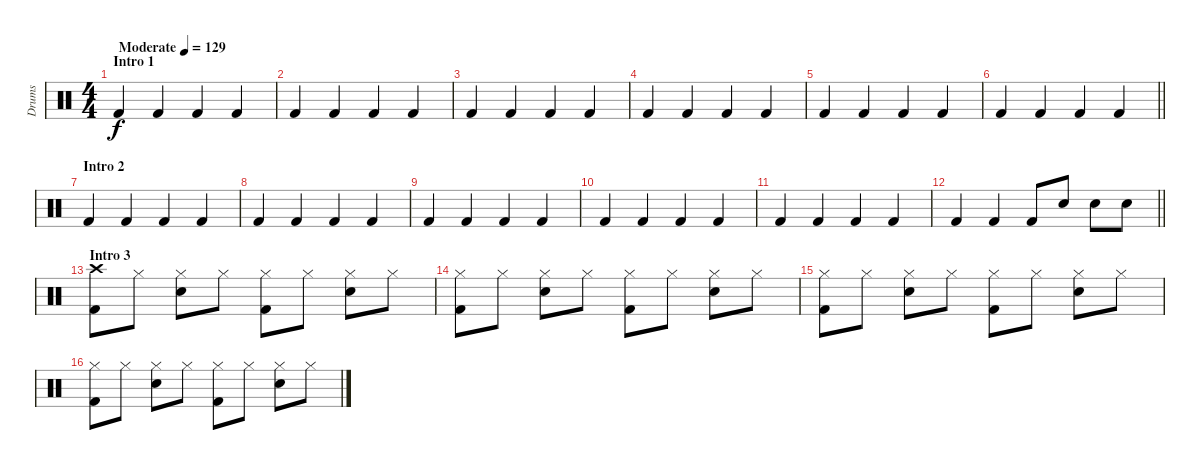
\track ("Drums" "Drums") {instrument percussion}
\staff {score}
\articulation defaults
\ts (4 4)
\section ("" "Intro 1")
\tempo (129 "Moderate")
\clef neutral
\ks c "Kick (hit) 2".4{dy f} "Kick (hit) 2".4 "Kick (hit) 2".4 "Kick (hit) 2".4
|
"Kick (hit) 2".4 "Kick (hit) 2".4 "Kick (hit) 2".4 "Kick (hit) 2".4 |
"Kick (hit) 2".4 "Kick (hit) 2".4 "Kick (hit) 2".4 "Kick (hit) 2".4 |
"Kick (hit) 2".4 "Kick (hit) 2".4 "Kick (hit) 2".4 "Kick (hit) 2".4 |
"Kick (hit) 2".4 "Kick (hit) 2".4 "Kick (hit) 2".4 "Kick (hit) 2".4 |
\barLineRight lightlight "Kick (hit) 2".4 "Kick (hit) 2".4 "Kick (hit) 2".4 "Kick (hit) 2".4
|
\section ("" "Intro 2")
"Kick (hit) 2".4 "Kick (hit) 2".4 "Kick (hit) 2".4 "Kick (hit) 2".4 |
"Kick (hit) 2".4 "Kick (hit) 2".4 "Kick (hit) 2".4 "Kick (hit) 2".4 |
"Kick (hit) 2".4 "Kick (hit) 2".4 "Kick (hit) 2".4 "Kick (hit) 2".4 |
"Kick (hit) 2".4 "Kick (hit) 2".4 "Kick (hit) 2".4 "Kick (hit) 2".4 |
"Kick (hit) 2".4 "Kick (hit) 2".4 "Kick (hit) 2".4 "Kick (hit) 2".4 |
\barLineRight lightlight "Kick (hit) 2".4 "Kick (hit) 2".4 "Kick (hit) 2".8 "Snare (hit) 2".8 "Snare (hit) 2".8 "Snare (hit) 2".8
|
\section ("" "Intro 3")
("Crash high (hit)" "Kick (hit) 2").8 "Hi-Hat (closed)".8 ("Hi-Hat (closed)" "Snare (hit) 2").8 "Hi-Hat (closed)".8 ("Hi-Hat (closed)" "Kick (hit) 2").8 "Hi-Hat (closed)".8 ("Hi-Hat (closed)" "Snare (hit) 2").8 "Hi-Hat (closed)".8 |
("Hi-Hat (closed)" "Kick (hit) 2").8 "Hi-Hat (closed)".8 ("Hi-Hat (closed)" "Snare (hit) 2").8 "Hi-Hat (closed)".8 ("Hi-Hat (closed)" "Kick (hit) 2").8 "Hi-Hat (closed)".8 ("Hi-Hat (closed)" "Snare (hit) 2").8 "Hi-Hat (closed)".8 |
("Hi-Hat (closed)" "Kick (hit) 2").8 "Hi-Hat (closed)".8 ("Hi-Hat (closed)" "Snare (hit) 2").8 "Hi-Hat (closed)".8 ("Hi-Hat (closed)" "Kick (hit) 2").8 "Hi-Hat (closed)".8 ("Hi-Hat (closed)" "Snare (hit) 2").8 "Hi-Hat (closed)".8 |
("Hi-Hat (closed)" "Kick (hit) 2").8 "Hi-Hat (closed)".8 ("Hi-Hat (closed)" "Snare (hit) 2").8 "Hi-Hat (closed)".8 ("Hi-Hat (closed)" "Kick (hit) 2").8 "Hi-Hat (closed)".8 ("Hi-Hat (closed)" "Snare (hit) 2").8 "Hi-Hat (closed)".8
